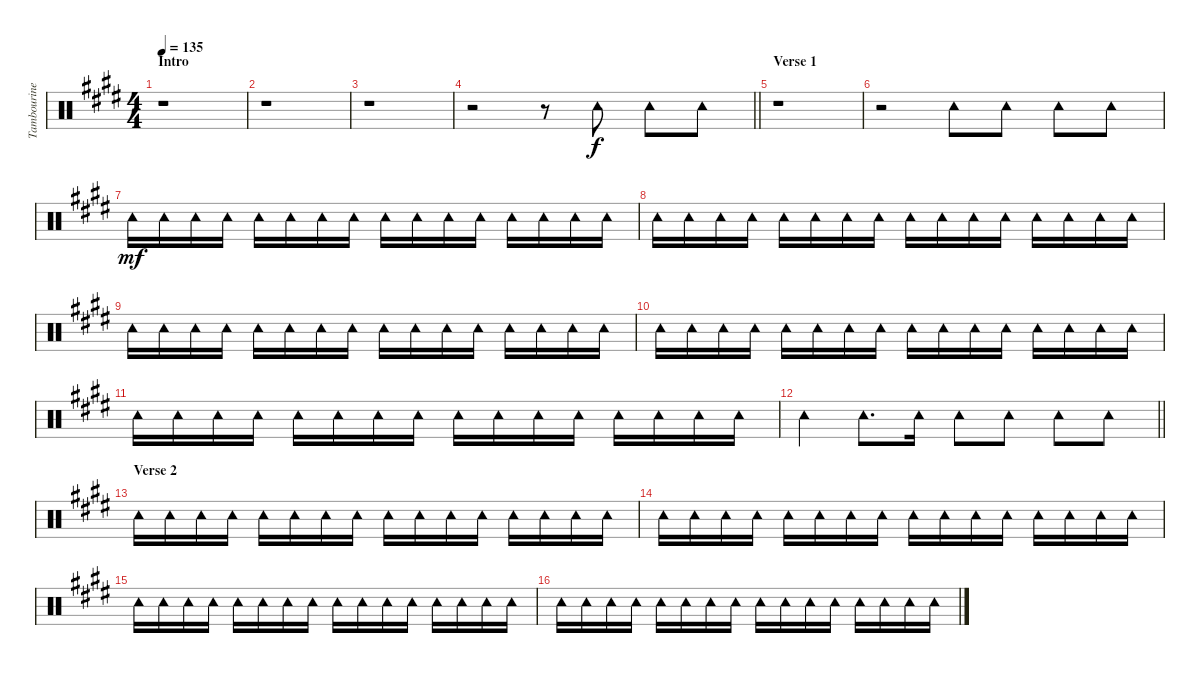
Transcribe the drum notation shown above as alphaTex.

\track ("Tambourine" "Tambourine") {instrument percussion}
\staff {score}
\articulation defaults
\ts (4 4)
\section ("" "Intro")
\tempo 135
\clef neutral
\ks e
r.1{dy f} |
r.1 |
r.1 |
\barLineRight lightlight
r.2 r.8 "Tambourine (hit)".8 "Tambourine (hit)".8 "Tambourine (hit)".8 |
\section ("" "Verse 1")
r.1 |
r.2 "Tambourine (hit)".8 "Tambourine (hit)".8 "Tambourine (hit)".8 "Tambourine (hit)".8 |
"Tambourine (hit)".16{dy mf} "Tambourine (hit)".16 "Tambourine (hit)".16 "Tambourine (hit)".16 "Tambourine (hit)".16 "Tambourine (hit)".16 "Tambourine (hit)".16 "Tambourine (hit)".16 "Tambourine (hit)".16 "Tambourine (hit)".16 "Tambourine (hit)".16 "Tambourine (hit)".16 "Tambourine (hit)".16 "Tambourine (hit)".16 "Tambourine (hit)".16 "Tambourine (hit)".16 |
"Tambourine (hit)".16 "Tambourine (hit)".16 "Tambourine (hit)".16 "Tambourine (hit)".16 "Tambourine (hit)".16 "Tambourine (hit)".16 "Tambourine (hit)".16 "Tambourine (hit)".16 "Tambourine (hit)".16 "Tambourine (hit)".16 "Tambourine (hit)".16 "Tambourine (hit)".16 "Tambourine (hit)".16 "Tambourine (hit)".16 "Tambourine (hit)".16 "Tambourine (hit)".16 |
"Tambourine (hit)".16 "Tambourine (hit)".16 "Tambourine (hit)".16 "Tambourine (hit)".16 "Tambourine (hit)".16 "Tambourine (hit)".16 "Tambourine (hit)".16 "Tambourine (hit)".16 "Tambourine (hit)".16 "Tambourine (hit)".16 "Tambourine (hit)".16 "Tambourine (hit)".16 "Tambourine (hit)".16 "Tambourine (hit)".16 "Tambourine (hit)".16 "Tambourine (hit)".16 |
"Tambourine (hit)".16 "Tambourine (hit)".16 "Tambourine (hit)".16 "Tambourine (hit)".16 "Tambourine (hit)".16 "Tambourine (hit)".16 "Tambourine (hit)".16 "Tambourine (hit)".16 "Tambourine (hit)".16 "Tambourine (hit)".16 "Tambourine (hit)".16 "Tambourine (hit)".16 "Tambourine (hit)".16 "Tambourine (hit)".16 "Tambourine (hit)".16 "Tambourine (hit)".16 |
"Tambourine (hit)".16 "Tambourine (hit)".16 "Tambourine (hit)".16 "Tambourine (hit)".16 "Tambourine (hit)".16 "Tambourine (hit)".16 "Tambourine (hit)".16 "Tambourine (hit)".16 "Tambourine (hit)".16 "Tambourine (hit)".16 "Tambourine (hit)".16 "Tambourine (hit)".16 "Tambourine (hit)".16 "Tambourine (hit)".16 "Tambourine (hit)".16 "Tambourine (hit)".16 |
\barLineRight lightlight "Tambourine (hit)".4 "Tambourine (hit)".8{d} "Tambourine (hit)".16 "Tambourine (hit)".8 "Tambourine (hit)".8 "Tambourine (hit)".8 "Tambourine (hit)".8
|
\section ("" "Verse 2")
"Tambourine (hit)".16 "Tambourine (hit)".16 "Tambourine (hit)".16 "Tambourine (hit)".16 "Tambourine (hit)".16 "Tambourine (hit)".16 "Tambourine (hit)".16 "Tambourine (hit)".16 "Tambourine (hit)".16 "Tambourine (hit)".16 "Tambourine (hit)".16 "Tambourine (hit)".16 "Tambourine (hit)".16 "Tambourine (hit)".16 "Tambourine (hit)".16 "Tambourine (hit)".16 |
"Tambourine (hit)".16 "Tambourine (hit)".16 "Tambourine (hit)".16 "Tambourine (hit)".16 "Tambourine (hit)".16 "Tambourine (hit)".16 "Tambourine (hit)".16 "Tambourine (hit)".16 "Tambourine (hit)".16 "Tambourine (hit)".16 "Tambourine (hit)".16 "Tambourine (hit)".16 "Tambourine (hit)".16 "Tambourine (hit)".16 "Tambourine (hit)".16 "Tambourine (hit)".16 |
"Tambourine (hit)".16 "Tambourine (hit)".16 "Tambourine (hit)".16 "Tambourine (hit)".16 "Tambourine (hit)".16 "Tambourine (hit)".16 "Tambourine (hit)".16 "Tambourine (hit)".16 "Tambourine (hit)".16 "Tambourine (hit)".16 "Tambourine (hit)".16 "Tambourine (hit)".16 "Tambourine (hit)".16 "Tambourine (hit)".16 "Tambourine (hit)".16 "Tambourine (hit)".16 |
"Tambourine (hit)".16 "Tambourine (hit)".16 "Tambourine (hit)".16 "Tambourine (hit)".16 "Tambourine (hit)".16 "Tambourine (hit)".16 "Tambourine (hit)".16 "Tambourine (hit)".16 "Tambourine (hit)".16 "Tambourine (hit)".16 "Tambourine (hit)".16 "Tambourine (hit)".16 "Tambourine (hit)".16 "Tambourine (hit)".16 "Tambourine (hit)".16 "Tambourine (hit)".16
